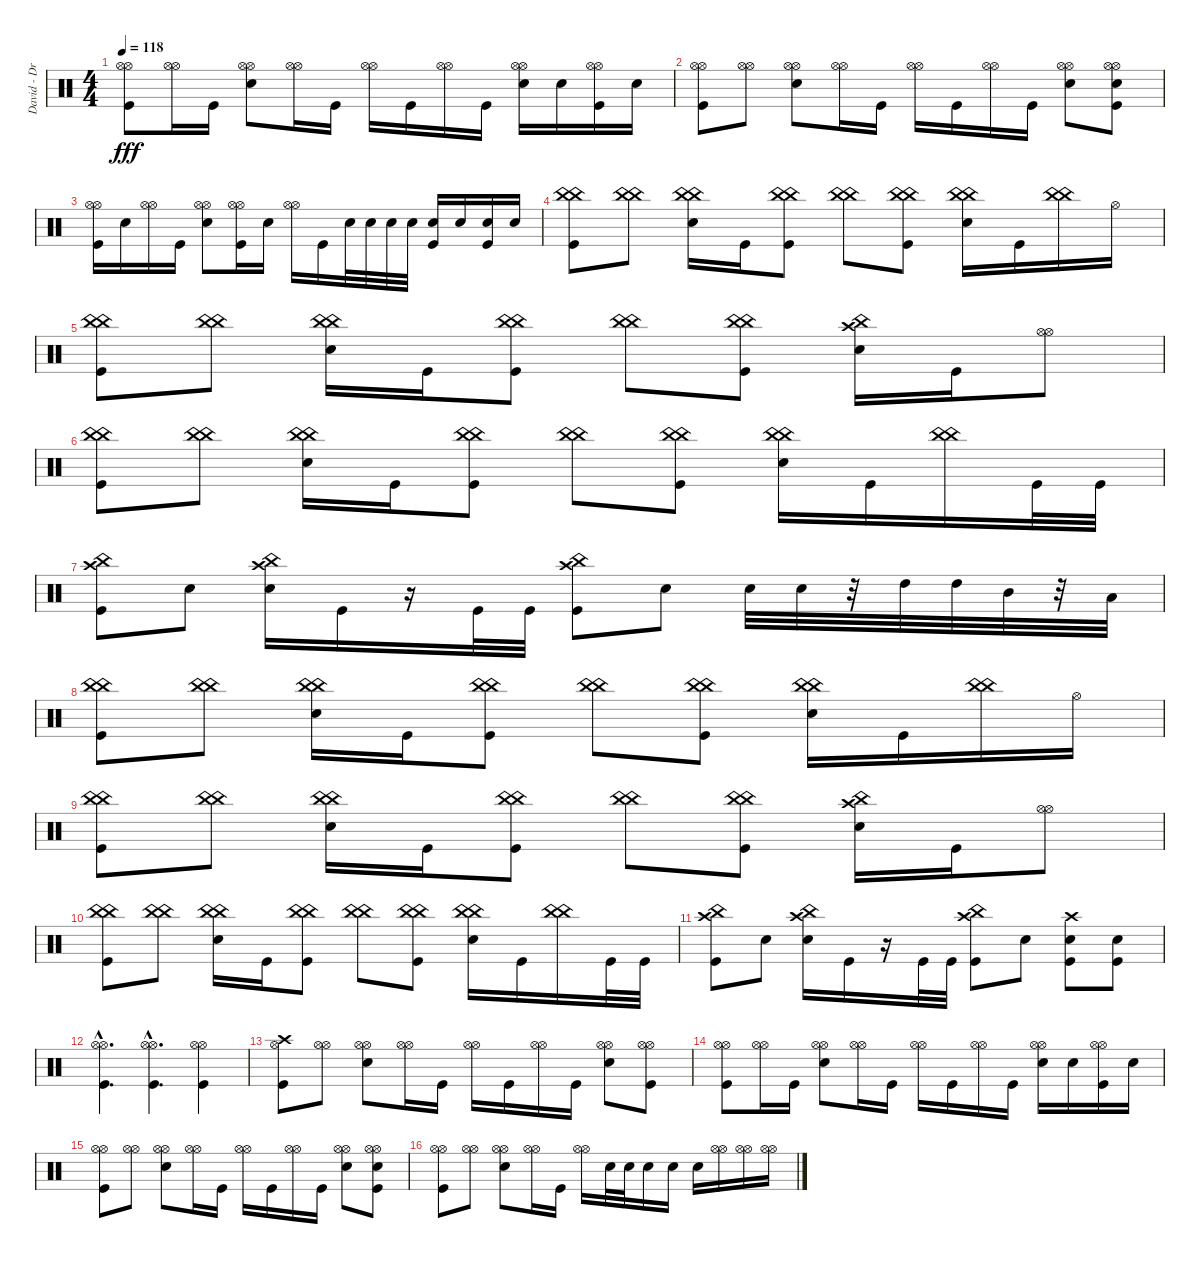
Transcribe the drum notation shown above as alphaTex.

\track ("David - Drums" "David - Dr") {instrument percussion}
\staff {score}
\articulation defaults
\ts (4 4)
\tempo 118
\clef neutral
\ks c
("Hi-Hat (open)" "Hi-Hat (open)" "Kick (hit)").8{dy fff} ("Hi-Hat (open)" "Hi-Hat (open)").16 "Kick (hit)".16 ("Hi-Hat (open)" "Hi-Hat (open)" "Snare (hit) 2").8 ("Hi-Hat (open)" "Hi-Hat (open)").16 "Kick (hit)".16 ("Hi-Hat (open)" "Hi-Hat (open)").16 "Kick (hit)".16 ("Hi-Hat (open)" "Hi-Hat (open)").16 "Kick (hit)".16 ("Hi-Hat (open)" "Hi-Hat (open)" "Snare (hit) 2").16 "Snare (hit) 2".16 ("Hi-Hat (open)" "Hi-Hat (open)" "Kick (hit)").16 "Snare (hit) 2".16 |
("Hi-Hat (open)" "Hi-Hat (open)" "Kick (hit)").8 ("Hi-Hat (open)" "Hi-Hat (open)").8 ("Hi-Hat (open)" "Hi-Hat (open)" "Snare (hit) 2").8 ("Hi-Hat (open)" "Hi-Hat (open)").16 "Kick (hit)".16 ("Hi-Hat (open)" "Hi-Hat (open)").16 "Kick (hit)".16 ("Hi-Hat (open)" "Hi-Hat (open)").16 "Kick (hit)".16 ("Hi-Hat (open)" "Hi-Hat (open)" "Snare (hit) 2").8 ("Hi-Hat (open)" "Hi-Hat (open)" "Snare (hit) 2" "Kick (hit)").8 |
("Hi-Hat (open)" "Hi-Hat (open)" "Kick (hit)").16 "Snare (hit) 2".16 ("Hi-Hat (open)" "Hi-Hat (open)").16 "Kick (hit)".16 ("Hi-Hat (open)" "Hi-Hat (open)" "Snare (hit) 2").8 ("Hi-Hat (open)" "Hi-Hat (open)" "Kick (hit)").16 "Snare (hit) 2".16 ("Hi-Hat (open)" "Hi-Hat (open)").16 "Kick (hit)".16 "Snare (hit) 2".32 "Snare (hit) 2".32 "Snare (hit) 2".32 "Snare (hit) 2".32 ("Snare (hit) 2" "Kick (hit)").16 "Snare (hit) 2".16 ("Snare (hit) 2" "Kick (hit)").16 "Snare (hit) 2".16 |
("China (hit)" "China (hit)" "Kick (hit)").8 ("China (hit)" "China (hit)").8 ("China (hit)" "China (hit)" "Snare (hit) 2").16 "Kick (hit)".16 ("China (hit)" "China (hit)" "Kick (hit)").8 ("China (hit)" "China (hit)").8 ("China (hit)" "China (hit)" "Kick (hit)").8 ("China (hit)" "China (hit)" "Snare (hit) 2").16 "Kick (hit)".16 ("China (hit)" "China (hit)").16 "Hi-Hat (open)".16 |
("China (hit)" "China (hit)" "Kick (hit)").8 ("China (hit)" "China (hit)").8 ("China (hit)" "China (hit)" "Snare (hit) 2").16 "Kick (hit)".16 ("China (hit)" "China (hit)" "Kick (hit)").8 ("China (hit)" "China (hit)").8 ("China (hit)" "China (hit)" "Kick (hit)").8 ("Crash high (hit)" "China (hit)" "Snare (hit) 2").16 "Kick (hit)".16 ("Hi-Hat (open)" "Hi-Hat (open)").8 |
("China (hit)" "China (hit)" "Kick (hit)").8 ("China (hit)" "China (hit)").8 ("China (hit)" "China (hit)" "Snare (hit) 2").16 "Kick (hit)".16 ("China (hit)" "China (hit)" "Kick (hit)").8 ("China (hit)" "China (hit)").8 ("China (hit)" "China (hit)" "Kick (hit)").8 ("China (hit)" "China (hit)" "Snare (hit) 2").16 "Kick (hit)".16 ("China (hit)" "China (hit)").16 "Kick (hit)".32 "Kick (hit)".32 |
("Crash high (hit)" "China (hit)" "Kick (hit)").8 "Snare (hit) 2".8 ("China (hit)" "Crash high (hit)" "Snare (hit) 2").16 "Kick (hit)".16 r.16 "Kick (hit)".32 "Kick (hit)".32 ("Crash high (hit)" "China (hit)" "Kick (hit)").8 "Snare (hit) 2".8 "Snare (hit) 2".32 "Snare (hit) 2".32 r.32 "High Tom (hit)".32 "High Tom (hit)".32 "Mid Tom (hit)".32 r.32 "Low Tom (hit)".32 |
("China (hit)" "China (hit)" "Kick (hit)").8 ("China (hit)" "China (hit)").8 ("China (hit)" "China (hit)" "Snare (hit) 2").16 "Kick (hit)".16 ("China (hit)" "China (hit)" "Kick (hit)").8 ("China (hit)" "China (hit)").8 ("China (hit)" "China (hit)" "Kick (hit)").8 ("China (hit)" "China (hit)" "Snare (hit) 2").16 "Kick (hit)".16 ("China (hit)" "China (hit)").16 "Hi-Hat (open)".16 |
("China (hit)" "China (hit)" "Kick (hit)").8 ("China (hit)" "China (hit)").8 ("China (hit)" "China (hit)" "Snare (hit) 2").16 "Kick (hit)".16 ("China (hit)" "China (hit)" "Kick (hit)").8 ("China (hit)" "China (hit)").8 ("China (hit)" "China (hit)" "Kick (hit)").8 ("Crash high (hit)" "China (hit)" "Snare (hit) 2").16 "Kick (hit)".16 ("Hi-Hat (open)" "Hi-Hat (open)").8 |
("China (hit)" "China (hit)" "Kick (hit)").8 ("China (hit)" "China (hit)").8 ("China (hit)" "China (hit)" "Snare (hit) 2").16 "Kick (hit)".16 ("China (hit)" "China (hit)" "Kick (hit)").8 ("China (hit)" "China (hit)").8 ("China (hit)" "China (hit)" "Kick (hit)").8 ("China (hit)" "China (hit)" "Snare (hit) 2").16 "Kick (hit)".16 ("China (hit)" "China (hit)").16 "Kick (hit)".32 "Kick (hit)".32 |
("Crash high (hit)" "China (hit)" "Kick (hit)").8 "Snare (hit) 2".8 ("Crash high (hit)" "China (hit)" "Snare (hit) 2").16 "Kick (hit)".16 r.16 "Kick (hit)".32 "Kick (hit)".32 ("Crash high (hit)" "China (hit)" "Kick (hit)").8 "Snare (hit) 2".8 ("Crash high (hit)" "Snare (hit) 2" "Kick (hit)").8 ("Snare (hit) 2" "Kick (hit)").8 |
("Hi-Hat (open)"{hac} "Hi-Hat (open)"{hac} "Kick (hit)"{hac}).4{d} ("Hi-Hat (open)"{hac} "Hi-Hat (open)"{hac} "Kick (hit)"{hac}).4{d} ("Hi-Hat (open)" "Hi-Hat (open)" "Kick (hit)").4 |
("Hi-Hat (open)" "Crash high (hit)" "Kick (hit)").8 ("Hi-Hat (open)" "Hi-Hat (open)").8 ("Hi-Hat (open)" "Hi-Hat (open)" "Snare (hit) 2").8 ("Hi-Hat (open)" "Hi-Hat (open)").16 "Kick (hit)".16 ("Hi-Hat (open)" "Hi-Hat (open)").16 "Kick (hit)".16 ("Hi-Hat (open)" "Hi-Hat (open)").16 "Kick (hit)".16 ("Hi-Hat (open)" "Hi-Hat (open)" "Snare (hit) 2").8 ("Hi-Hat (open)" "Hi-Hat (open)" "Kick (hit)").8 |
("Hi-Hat (open)" "Hi-Hat (open)" "Kick (hit)").8 ("Hi-Hat (open)" "Hi-Hat (open)").16 "Kick (hit)".16 ("Hi-Hat (open)" "Hi-Hat (open)" "Snare (hit) 2").8 ("Hi-Hat (open)" "Hi-Hat (open)").16 "Kick (hit)".16 ("Hi-Hat (open)" "Hi-Hat (open)").16 "Kick (hit)".16 ("Hi-Hat (open)" "Hi-Hat (open)").16 "Kick (hit)".16 ("Hi-Hat (open)" "Hi-Hat (open)" "Snare (hit) 2").16 "Snare (hit) 2".16 ("Hi-Hat (open)" "Hi-Hat (open)" "Kick (hit)").16 "Snare (hit) 2".16 |
("Hi-Hat (open)" "Hi-Hat (open)" "Kick (hit)").8 ("Hi-Hat (open)" "Hi-Hat (open)").8 ("Hi-Hat (open)" "Hi-Hat (open)" "Snare (hit) 2").8 ("Hi-Hat (open)" "Hi-Hat (open)").16 "Kick (hit)".16 ("Hi-Hat (open)" "Hi-Hat (open)").16 "Kick (hit)".16 ("Hi-Hat (open)" "Hi-Hat (open)").16 "Kick (hit)".16 ("Hi-Hat (open)" "Hi-Hat (open)" "Snare (hit) 2").8 ("Hi-Hat (open)" "Hi-Hat (open)" "Snare (hit) 2" "Kick (hit)").8 |
("Hi-Hat (open)" "Hi-Hat (open)" "Kick (hit)").8 ("Hi-Hat (open)" "Hi-Hat (open)").8 ("Hi-Hat (open)" "Hi-Hat (open)" "Snare (hit) 2").8 ("Hi-Hat (open)" "Hi-Hat (open)").16 "Kick (hit)".16 ("Hi-Hat (open)" "Hi-Hat (open)").16 "Snare (hit) 2".32 "Snare (hit) 2".32 "Snare (hit) 2".16 "Snare (hit) 2".16 "Snare (hit) 2".16 ("Hi-Hat (open)" "Hi-Hat (open)").16 ("Hi-Hat (open)" "Hi-Hat (open)").16 ("Hi-Hat (open)" "Hi-Hat (open)").16
